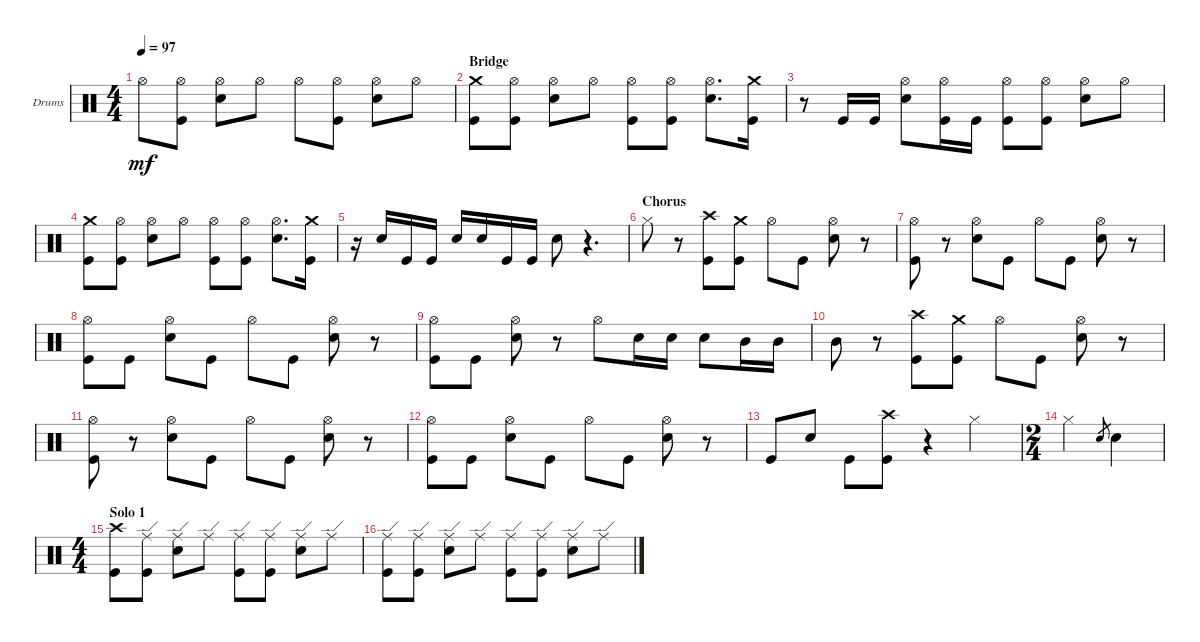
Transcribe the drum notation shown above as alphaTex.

\bracketExtendMode groupsimilarinstruments
\firstSystemTrackNameOrientation horizontal
\otherSystemsTrackNameOrientation horizontal
\track ("Drumkit" "Drums") {instrument percussion}
\staff {score}
\articulation defaults
\ts (4 4)
\tempo 97
\clef neutral
\ks c "Hi-Hat (open)".8{dy mf}
("Hi-Hat (open)" "Kick (hit)").8 ("Hi-Hat (open)" "Snare (hit) 2").8 "Hi-Hat (open)".8 "Hi-Hat (open)".8 ("Hi-Hat (open)" "Kick (hit)").8 ("Hi-Hat (open)" "Snare (hit) 2").8 "Hi-Hat (open)".8 |
\section ("" "Bridge")
("Crash medium (hit)" "Kick (hit)").8 ("Hi-Hat (open)" "Kick (hit)").8 ("Hi-Hat (open)" "Snare (hit) 2").8 "Hi-Hat (open)".8 ("Hi-Hat (open)" "Kick (hit)").8 ("Hi-Hat (open)" "Kick (hit)").8 ("Hi-Hat (open)" "Snare (hit) 2").8{d} ("Crash medium (hit)" "Kick (hit)").16 |
r.8 "Kick (hit)".16 "Kick (hit)".16 ("Hi-Hat (open)" "Snare (hit) 2").8 ("Hi-Hat (open)" "Kick (hit)").16 "Kick (hit)".16 ("Hi-Hat (open)" "Kick (hit)").8 ("Hi-Hat (open)" "Kick (hit)").8 ("Hi-Hat (open)" "Snare (hit) 2").8 "Hi-Hat (open)".8 |
("Crash medium (hit)" "Kick (hit)").8 ("Hi-Hat (open)" "Kick (hit)").8 ("Hi-Hat (open)" "Snare (hit) 2").8 "Hi-Hat (open)".8 ("Hi-Hat (open)" "Kick (hit)").8 ("Hi-Hat (open)" "Kick (hit)").8 ("Hi-Hat (open)" "Snare (hit) 2").8{d} ("Crash medium (hit)" "Kick (hit)").16 |
r.16 "Snare (hit) 2".16 "Kick (hit)".16 "Kick (hit)".16 "Snare (hit) 2".16 "Snare (hit) 2".16 "Kick (hit)".16 "Kick (hit)".16 "Snare (hit) 2".8 r.4{d} |
\section ("" "Chorus")
"Hi-Hat (closed)".8 r.8 ("Crash high (hit)" "Kick (hit)").8 ("Crash medium (hit)" "Kick (hit)").8 "Hi-Hat (open)".8 "Kick (hit)".8 ("Hi-Hat (open)" "Snare (hit) 2").8 r.8 |
("Hi-Hat (open)" "Kick (hit)").8 r.8 ("Hi-Hat (open)" "Snare (hit) 2").8 "Kick (hit)".8 "Hi-Hat (open)".8 "Kick (hit)".8 ("Hi-Hat (open)" "Snare (hit) 2").8 r.8 |
("Hi-Hat (open)" "Kick (hit)").8 "Kick (hit)".8 ("Hi-Hat (open)" "Snare (hit) 2").8 "Kick (hit)".8 "Hi-Hat (open)".8 "Kick (hit)".8 ("Hi-Hat (open)" "Snare (hit) 2").8 r.8 |
("Hi-Hat (open)" "Kick (hit)").8 "Kick (hit)".8 ("Hi-Hat (open)" "Snare (hit) 2").8 r.8 "Hi-Hat (open)".8 "Snare (hit) 2".16 "Snare (hit) 2".16 "Snare (hit) 2".8 "Mid Tom (hit)".16 "Mid Tom (hit)".16 |
"Mid Tom (hit)".8 r.8 ("Crash high (hit)" "Kick (hit)").8 ("Crash medium (hit)" "Kick (hit)").8 "Hi-Hat (open)".8 "Kick (hit)".8 ("Hi-Hat (open)" "Snare (hit) 2").8 r.8 |
("Hi-Hat (open)" "Kick (hit)").8 r.8 ("Hi-Hat (open)" "Snare (hit) 2").8 "Kick (hit)".8 "Hi-Hat (open)".8 "Kick (hit)".8 ("Hi-Hat (open)" "Snare (hit) 2").8 r.8 |
("Hi-Hat (open)" "Kick (hit)").8 "Kick (hit)".8 ("Hi-Hat (open)" "Snare (hit) 2").8 "Kick (hit)".8 "Hi-Hat (open)".8 "Kick (hit)".8 ("Hi-Hat (open)" "Snare (hit) 2").8 r.8 |
"Kick (hit)".8 "Snare (hit) 2".8 "Kick (hit)".8 ("Crash high (hit)" "Kick (hit)").8 r.4 "Hi-Hat (closed)".4 |
\ts (2 4)
"Hi-Hat (closed)".4 "Snare (hit) 2".8{gr} "Snare (hit) 2".4 |
\ts (4 4)
\section ("" "Solo 1")
("Crash high (hit)" "Kick (hit)").8 ("Ride (edge)" "Kick (hit)").8 ("Ride (edge)" "Snare (hit) 2").8 "Ride (edge)".8 ("Ride (edge)" "Kick (hit)").8 ("Ride (edge)" "Kick (hit)").8 ("Ride (edge)" "Snare (hit) 2").8 "Ride (edge)".8 |
("Ride (edge)" "Kick (hit)").8 ("Ride (edge)" "Kick (hit)").8 ("Ride (edge)" "Snare (hit) 2").8 "Ride (edge)".8 ("Ride (edge)" "Kick (hit)").8 ("Ride (edge)" "Kick (hit)").8 ("Ride (edge)" "Snare (hit) 2").8 "Ride (edge)".8
